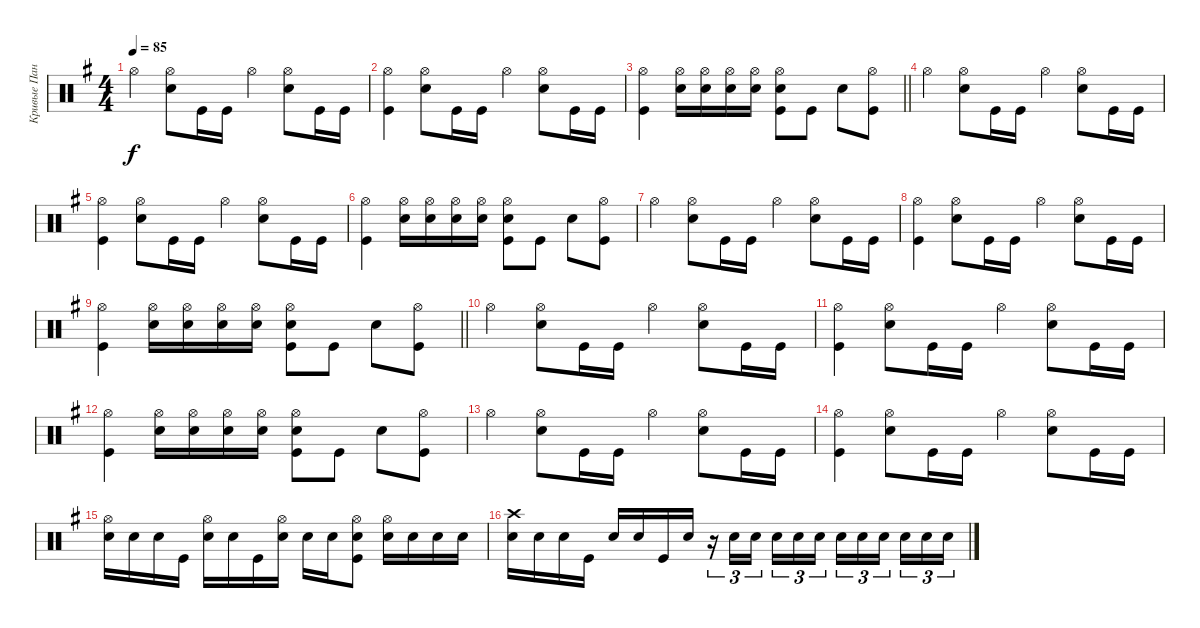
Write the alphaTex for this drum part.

\track ("Кривые Панковские Ударки (CPU)" "Кривые Пан") {instrument percussion}
\staff {score}
\articulation defaults
\ts (4 4)
\tempo 85
\clef neutral
\ks eminor "Hi-Hat (open)".4{dy f}
("Hi-Hat (open)" "Snare (hit) 2").8 "Kick (hit)".16 "Kick (hit)".16 "Hi-Hat (open)".4 ("Hi-Hat (open)" "Snare (hit) 2").8 "Kick (hit)".16 "Kick (hit)".16 |
("Hi-Hat (open)" "Kick (hit)").4 ("Hi-Hat (open)" "Snare (hit) 2").8 "Kick (hit)".16 "Kick (hit)".16 "Hi-Hat (open)".4 ("Hi-Hat (open)" "Snare (hit) 2").8 "Kick (hit)".16 "Kick (hit)".16 |
\barLineRight lightlight
("Hi-Hat (open)" "Kick (hit)").4 ("Hi-Hat (open)" "Snare (hit) 2").16 ("Hi-Hat (open)" "Snare (hit) 2").16 ("Hi-Hat (open)" "Snare (hit) 2").16 ("Hi-Hat (open)" "Snare (hit) 2").16 ("Hi-Hat (open)" "Snare (hit) 2" "Kick (hit)").8 "Kick (hit)".8 "Snare (hit) 2".8 ("Hi-Hat (open)" "Kick (hit)").8 |
"Hi-Hat (open)".4 ("Hi-Hat (open)" "Snare (hit) 2").8 "Kick (hit)".16 "Kick (hit)".16 "Hi-Hat (open)".4 ("Hi-Hat (open)" "Snare (hit) 2").8 "Kick (hit)".16 "Kick (hit)".16 |
("Hi-Hat (open)" "Kick (hit)").4 ("Hi-Hat (open)" "Snare (hit) 2").8 "Kick (hit)".16 "Kick (hit)".16 "Hi-Hat (open)".4 ("Hi-Hat (open)" "Snare (hit) 2").8 "Kick (hit)".16 "Kick (hit)".16 |
("Hi-Hat (open)" "Kick (hit)").4 ("Hi-Hat (open)" "Snare (hit) 2").16 ("Hi-Hat (open)" "Snare (hit) 2").16 ("Hi-Hat (open)" "Snare (hit) 2").16 ("Hi-Hat (open)" "Snare (hit) 2").16 ("Hi-Hat (open)" "Snare (hit) 2" "Kick (hit)").8 "Kick (hit)".8 "Snare (hit) 2".8 ("Hi-Hat (open)" "Kick (hit)").8 |
"Hi-Hat (open)".4 ("Hi-Hat (open)" "Snare (hit) 2").8 "Kick (hit)".16 "Kick (hit)".16 "Hi-Hat (open)".4 ("Hi-Hat (open)" "Snare (hit) 2").8 "Kick (hit)".16 "Kick (hit)".16 |
("Hi-Hat (open)" "Kick (hit)").4 ("Hi-Hat (open)" "Snare (hit) 2").8 "Kick (hit)".16 "Kick (hit)".16 "Hi-Hat (open)".4 ("Hi-Hat (open)" "Snare (hit) 2").8 "Kick (hit)".16 "Kick (hit)".16 |
\barLineRight lightlight
("Hi-Hat (open)" "Kick (hit)").4 ("Hi-Hat (open)" "Snare (hit) 2").16 ("Hi-Hat (open)" "Snare (hit) 2").16 ("Hi-Hat (open)" "Snare (hit) 2").16 ("Hi-Hat (open)" "Snare (hit) 2").16 ("Hi-Hat (open)" "Snare (hit) 2" "Kick (hit)").8 "Kick (hit)".8 "Snare (hit) 2".8 ("Hi-Hat (open)" "Kick (hit)").8 |
"Hi-Hat (open)".4 ("Hi-Hat (open)" "Snare (hit) 2").8 "Kick (hit)".16 "Kick (hit)".16 "Hi-Hat (open)".4 ("Hi-Hat (open)" "Snare (hit) 2").8 "Kick (hit)".16 "Kick (hit)".16 |
("Hi-Hat (open)" "Kick (hit)").4 ("Hi-Hat (open)" "Snare (hit) 2").8 "Kick (hit)".16 "Kick (hit)".16 "Hi-Hat (open)".4 ("Hi-Hat (open)" "Snare (hit) 2").8 "Kick (hit)".16 "Kick (hit)".16 |
("Hi-Hat (open)" "Kick (hit)").4 ("Hi-Hat (open)" "Snare (hit) 2").16 ("Hi-Hat (open)" "Snare (hit) 2").16 ("Hi-Hat (open)" "Snare (hit) 2").16 ("Hi-Hat (open)" "Snare (hit) 2").16 ("Hi-Hat (open)" "Snare (hit) 2" "Kick (hit)").8 "Kick (hit)".8 "Snare (hit) 2".8 ("Hi-Hat (open)" "Kick (hit)").8 |
"Hi-Hat (open)".4 ("Hi-Hat (open)" "Snare (hit) 2").8 "Kick (hit)".16 "Kick (hit)".16 "Hi-Hat (open)".4 ("Hi-Hat (open)" "Snare (hit) 2").8 "Kick (hit)".16 "Kick (hit)".16 |
("Hi-Hat (open)" "Kick (hit)").4 ("Hi-Hat (open)" "Snare (hit) 2").8 "Kick (hit)".16 "Kick (hit)".16 "Hi-Hat (open)".4 ("Hi-Hat (open)" "Snare (hit) 2").8 "Kick (hit)".16 "Kick (hit)".16 |
("Hi-Hat (open)" "Snare (hit) 2").16 "Snare (hit) 2".16 "Snare (hit) 2".16 "Kick (hit)".16 ("Hi-Hat (open)" "Snare (hit) 2").16 "Snare (hit) 2".16 "Kick (hit)".16 ("Hi-Hat (open)" "Snare (hit) 2").16 "Snare (hit) 2".16 "Snare (hit) 2".16 ("Hi-Hat (open)" "Snare (hit) 2" "Kick (hit)").8 ("Hi-Hat (open)" "Snare (hit) 2").16 "Snare (hit) 2".16 "Snare (hit) 2".16 "Snare (hit) 2".16 |
("Crash high (hit)" "Snare (hit) 2").16 "Snare (hit) 2".16 "Snare (hit) 2".16 "Kick (hit)".16 "Snare (hit) 2".16 "Snare (hit) 2".16 "Kick (hit)".16 "Snare (hit) 2".16 r.16{tu (3 2)} "Snare (hit) 2".16{tu (3 2)} "Snare (hit) 2".16{tu (3 2)} "Snare (hit) 2".16{tu (3 2)} "Snare (hit) 2".16{tu (3 2)} "Snare (hit) 2".16{tu (3 2)} "Snare (hit) 2".16{tu (3 2)} "Snare (hit) 2".16{tu (3 2)} "Snare (hit) 2".16{tu (3 2)} "Snare (hit) 2".16{tu (3 2)} "Snare (hit) 2".16{tu (3 2)} "Snare (hit) 2".16{tu (3 2)}
